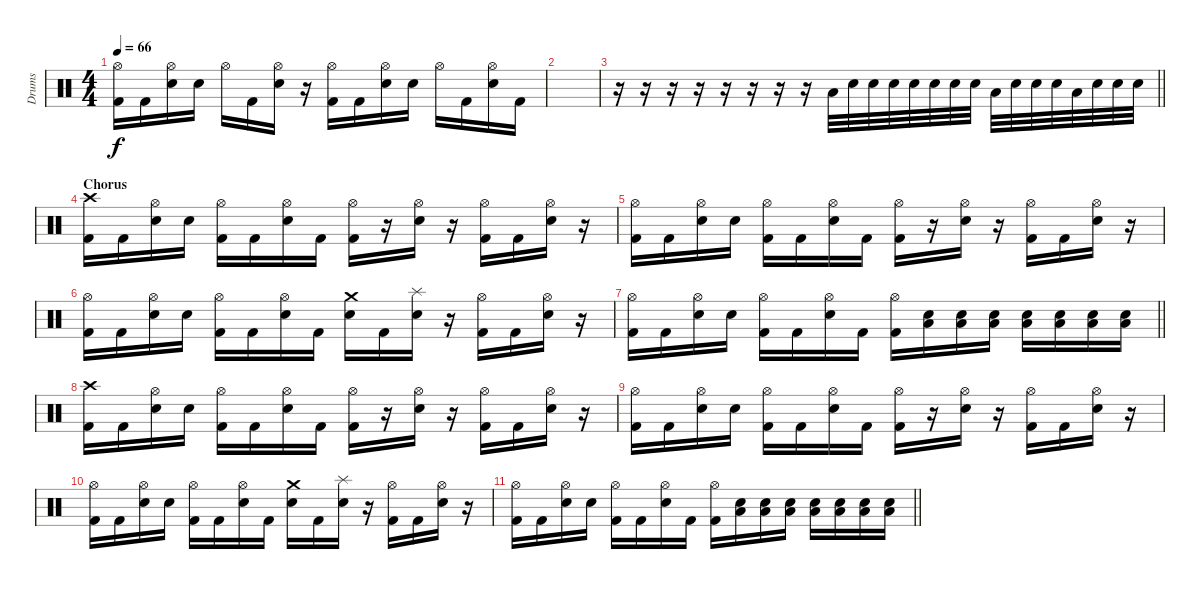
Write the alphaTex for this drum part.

\track ("Drums" "Drums") {instrument percussion}
\staff {score}
\articulation defaults
\ts (4 4)
\tempo 66
\clef neutral
\ks c
("Hi-Hat (open)" "Kick (hit) 2").16{dy f} "Kick (hit) 2".16 ("Hi-Hat (open)" "Snare (hit) 2").16 "Snare (hit) 2".16 "Hi-Hat (open)".16 "Kick (hit) 2".16 ("Hi-Hat (open)" "Snare (hit) 2").16 r.16 ("Hi-Hat (open)" "Kick (hit) 2").16 "Kick (hit) 2".16 ("Hi-Hat (open)" "Snare (hit) 2").16 "Snare (hit) 2".16 "Hi-Hat (open)".16 "Kick (hit) 2".16 ("Hi-Hat (open)" "Snare (hit) 2").16 "Kick (hit) 2".16 |
|
\barLineRight lightlight
r.16 r.16 r.16 r.16 r.16 r.16 r.16 r.16 "Low Tom (hit)".32 "Snare (hit) 2".32 "Snare (hit) 2".32 "Snare (hit) 2".32 "Snare (hit) 2".32 "Snare (hit) 2".32 "Snare (hit) 2".32 "Snare (hit) 2".32 "Low Tom (hit)".32 "Snare (hit) 2".32 "Snare (hit) 2".32 "Snare (hit) 2".32 "Low Tom (hit)".32 "Snare (hit) 2".32 "Snare (hit) 2".32 "Snare (hit) 2".32 |
\section ("" "Chorus")
("Crash high (hit)" "Kick (hit) 2").16 "Kick (hit) 2".16 ("Hi-Hat (open)" "Snare (hit) 2").16 "Snare (hit) 2".16 ("Hi-Hat (open)" "Kick (hit) 2").16 "Kick (hit) 2".16 ("Hi-Hat (open)" "Snare (hit) 2").16 "Kick (hit) 2".16 ("Hi-Hat (open)" "Kick (hit) 2").16 r.16 ("Hi-Hat (open)" "Snare (hit) 2").16 r.16 ("Hi-Hat (open)" "Kick (hit) 2").16 "Kick (hit) 2".16 ("Hi-Hat (open)" "Snare (hit) 2").16 r.16 |
("Hi-Hat (open)" "Kick (hit) 2").16 "Kick (hit) 2".16 ("Hi-Hat (open)" "Snare (hit) 2").16 "Snare (hit) 2".16 ("Hi-Hat (open)" "Kick (hit) 2").16 "Kick (hit) 2".16 ("Hi-Hat (open)" "Snare (hit) 2").16 "Kick (hit) 2".16 ("Hi-Hat (open)" "Kick (hit) 2").16 r.16 ("Hi-Hat (open)" "Snare (hit) 2").16 r.16 ("Hi-Hat (open)" "Kick (hit) 2").16 "Kick (hit) 2".16 ("Hi-Hat (open)" "Snare (hit) 2").16 r.16 |
("Hi-Hat (open)" "Kick (hit) 2").16 "Kick (hit) 2".16 ("Hi-Hat (open)" "Snare (hit) 2").16 "Snare (hit) 2".16 ("Hi-Hat (open)" "Kick (hit) 2").16 "Kick (hit) 2".16 ("Hi-Hat (open)" "Snare (hit) 2").16 "Kick (hit) 2".16 ("Crash medium (hit)" "Snare (hit) 2").16 "Kick (hit) 2".16 ("Splash (hit)" "Snare (hit) 2").16 r.16 ("Hi-Hat (open)" "Kick (hit) 2").16 "Kick (hit) 2".16 ("Hi-Hat (open)" "Snare (hit) 2").16 r.16 |
\barLineRight lightlight
("Hi-Hat (open)" "Kick (hit) 2").16 "Kick (hit) 2".16 ("Hi-Hat (open)" "Snare (hit) 2").16 "Snare (hit) 2".16 ("Hi-Hat (open)" "Kick (hit) 2").16 "Kick (hit) 2".16 ("Hi-Hat (open)" "Snare (hit) 2").16 "Kick (hit) 2".16 ("Hi-Hat (open)" "Kick (hit) 2").16 ("Low Tom (hit)" "Snare (hit) 2").16 ("Low Tom (hit)" "Snare (hit) 2").16 ("Low Tom (hit)" "Snare (hit) 2").16 ("Low Tom (hit)" "Snare (hit) 2").16 ("Low Tom (hit)" "Snare (hit) 2").16 ("Low Tom (hit)" "Snare (hit) 2").16 ("Low Tom (hit)" "Snare (hit) 2").16 |
("Crash high (hit)" "Kick (hit) 2").16 "Kick (hit) 2".16 ("Hi-Hat (open)" "Snare (hit) 2").16 "Snare (hit) 2".16 ("Hi-Hat (open)" "Kick (hit) 2").16 "Kick (hit) 2".16 ("Hi-Hat (open)" "Snare (hit) 2").16 "Kick (hit) 2".16 ("Hi-Hat (open)" "Kick (hit) 2").16 r.16 ("Hi-Hat (open)" "Snare (hit) 2").16 r.16 ("Hi-Hat (open)" "Kick (hit) 2").16 "Kick (hit) 2".16 ("Hi-Hat (open)" "Snare (hit) 2").16 r.16 |
("Hi-Hat (open)" "Kick (hit) 2").16 "Kick (hit) 2".16 ("Hi-Hat (open)" "Snare (hit) 2").16 "Snare (hit) 2".16 ("Hi-Hat (open)" "Kick (hit) 2").16 "Kick (hit) 2".16 ("Hi-Hat (open)" "Snare (hit) 2").16 "Kick (hit) 2".16 ("Hi-Hat (open)" "Kick (hit) 2").16 r.16 ("Hi-Hat (open)" "Snare (hit) 2").16 r.16 ("Hi-Hat (open)" "Kick (hit) 2").16 "Kick (hit) 2".16 ("Hi-Hat (open)" "Snare (hit) 2").16 r.16 |
("Hi-Hat (open)" "Kick (hit) 2").16 "Kick (hit) 2".16 ("Hi-Hat (open)" "Snare (hit) 2").16 "Snare (hit) 2".16 ("Hi-Hat (open)" "Kick (hit) 2").16 "Kick (hit) 2".16 ("Hi-Hat (open)" "Snare (hit) 2").16 "Kick (hit) 2".16 ("Crash medium (hit)" "Snare (hit) 2").16 "Kick (hit) 2".16 ("Splash (hit)" "Snare (hit) 2").16 r.16 ("Hi-Hat (open)" "Kick (hit) 2").16 "Kick (hit) 2".16 ("Hi-Hat (open)" "Snare (hit) 2").16 r.16 |
\barLineRight lightlight
("Hi-Hat (open)" "Kick (hit) 2").16 "Kick (hit) 2".16 ("Hi-Hat (open)" "Snare (hit) 2").16 "Snare (hit) 2".16 ("Hi-Hat (open)" "Kick (hit) 2").16 "Kick (hit) 2".16 ("Hi-Hat (open)" "Snare (hit) 2").16 "Kick (hit) 2".16 ("Hi-Hat (open)" "Kick (hit) 2").16 ("Low Tom (hit)" "Snare (hit) 2").16 ("Low Tom (hit)" "Snare (hit) 2").16 ("Low Tom (hit)" "Snare (hit) 2").16 ("Low Tom (hit)" "Snare (hit) 2").16 ("Low Tom (hit)" "Snare (hit) 2").16 ("Low Tom (hit)" "Snare (hit) 2").16 ("Low Tom (hit)" "Snare (hit) 2").16
